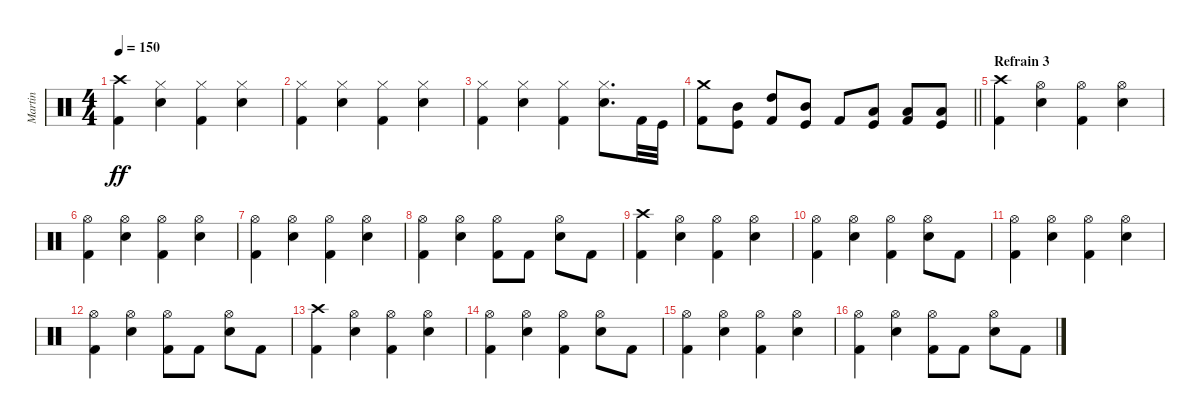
\track ("Martin" "Martin") {instrument percussion}
\staff {score}
\articulation defaults
\ts (4 4)
\tempo 150
\clef neutral
\ks c
("Crash high (hit)" "Kick (hit) 2").4{dy ff} ("Hi-Hat (closed)" "Electric Snare (hit)").4 ("Hi-Hat (closed)" "Kick (hit) 2").4 ("Hi-Hat (closed)" "Electric Snare (hit)").4 |
("Hi-Hat (closed)" "Kick (hit) 2").4 ("Hi-Hat (closed)" "Electric Snare (hit)").4 ("Hi-Hat (closed)" "Kick (hit) 2").4 ("Hi-Hat (closed)" "Electric Snare (hit)").4 |
("Hi-Hat (closed)" "Kick (hit) 2").4 ("Hi-Hat (closed)" "Electric Snare (hit)").4 ("Hi-Hat (closed)" "Kick (hit) 2").4 ("Hi-Hat (closed)" "Electric Snare (hit)").8{d} "Kick (hit) 2".32 "Kick (hit)".32 |
\barLineRight lightlight
("Crash medium (hit)" "Kick (hit) 2").8 ("Mid Tom (hit)" "Kick (hit)").8 ("High Tom (hit)" "Kick (hit) 2").8 ("Mid Tom (hit)" "Kick (hit)").8 "Kick (hit) 2".8 ("Low Tom (hit)" "Kick (hit)").8 ("Low Tom (hit)" "Kick (hit) 2").8 ("Low Tom (hit)" "Kick (hit)").8 |
\section ("" "Refrain 3")
("Crash high (hit)" "Kick (hit) 2").4 ("Hi-Hat (open)" "Electric Snare (hit)").4 ("Hi-Hat (open)" "Kick (hit) 2").4 ("Hi-Hat (open)" "Electric Snare (hit)").4 |
("Hi-Hat (open)" "Kick (hit) 2").4 ("Hi-Hat (open)" "Electric Snare (hit)").4 ("Hi-Hat (open)" "Kick (hit) 2").4 ("Hi-Hat (open)" "Electric Snare (hit)").4 |
("Hi-Hat (open)" "Kick (hit) 2").4 ("Hi-Hat (open)" "Electric Snare (hit)").4 ("Hi-Hat (open)" "Kick (hit) 2").4 ("Hi-Hat (open)" "Electric Snare (hit)").4 |
("Hi-Hat (open)" "Kick (hit) 2").4 ("Hi-Hat (open)" "Electric Snare (hit)").4 ("Hi-Hat (open)" "Kick (hit) 2").8 "Kick (hit) 2".8 ("Hi-Hat (open)" "Electric Snare (hit)").8 "Kick (hit) 2".8 |
("Crash high (hit)" "Kick (hit) 2").4 ("Hi-Hat (open)" "Electric Snare (hit)").4 ("Hi-Hat (open)" "Kick (hit) 2").4 ("Hi-Hat (open)" "Electric Snare (hit)").4 |
("Hi-Hat (open)" "Kick (hit) 2").4 ("Hi-Hat (open)" "Electric Snare (hit)").4 ("Hi-Hat (open)" "Kick (hit) 2").4 ("Hi-Hat (open)" "Electric Snare (hit)").8 "Kick (hit) 2".8 |
("Hi-Hat (open)" "Kick (hit) 2").4 ("Hi-Hat (open)" "Electric Snare (hit)").4 ("Hi-Hat (open)" "Kick (hit) 2").4 ("Hi-Hat (open)" "Electric Snare (hit)").4 |
("Hi-Hat (open)" "Kick (hit) 2").4 ("Hi-Hat (open)" "Electric Snare (hit)").4 ("Hi-Hat (open)" "Kick (hit) 2").8 "Kick (hit) 2".8 ("Hi-Hat (open)" "Electric Snare (hit)").8 "Kick (hit) 2".8 |
("Crash high (hit)" "Kick (hit) 2").4 ("Hi-Hat (open)" "Electric Snare (hit)").4 ("Hi-Hat (open)" "Kick (hit) 2").4 ("Hi-Hat (open)" "Electric Snare (hit)").4 |
("Hi-Hat (open)" "Kick (hit) 2").4 ("Hi-Hat (open)" "Electric Snare (hit)").4 ("Hi-Hat (open)" "Kick (hit) 2").4 ("Hi-Hat (open)" "Electric Snare (hit)").8 "Kick (hit) 2".8 |
("Hi-Hat (open)" "Kick (hit) 2").4 ("Hi-Hat (open)" "Electric Snare (hit)").4 ("Hi-Hat (open)" "Kick (hit) 2").4 ("Hi-Hat (open)" "Electric Snare (hit)").4 |
("Hi-Hat (open)" "Kick (hit) 2").4 ("Hi-Hat (open)" "Electric Snare (hit)").4 ("Hi-Hat (open)" "Kick (hit) 2").8 "Kick (hit) 2".8 ("Hi-Hat (open)" "Electric Snare (hit)").8 "Kick (hit) 2".8
